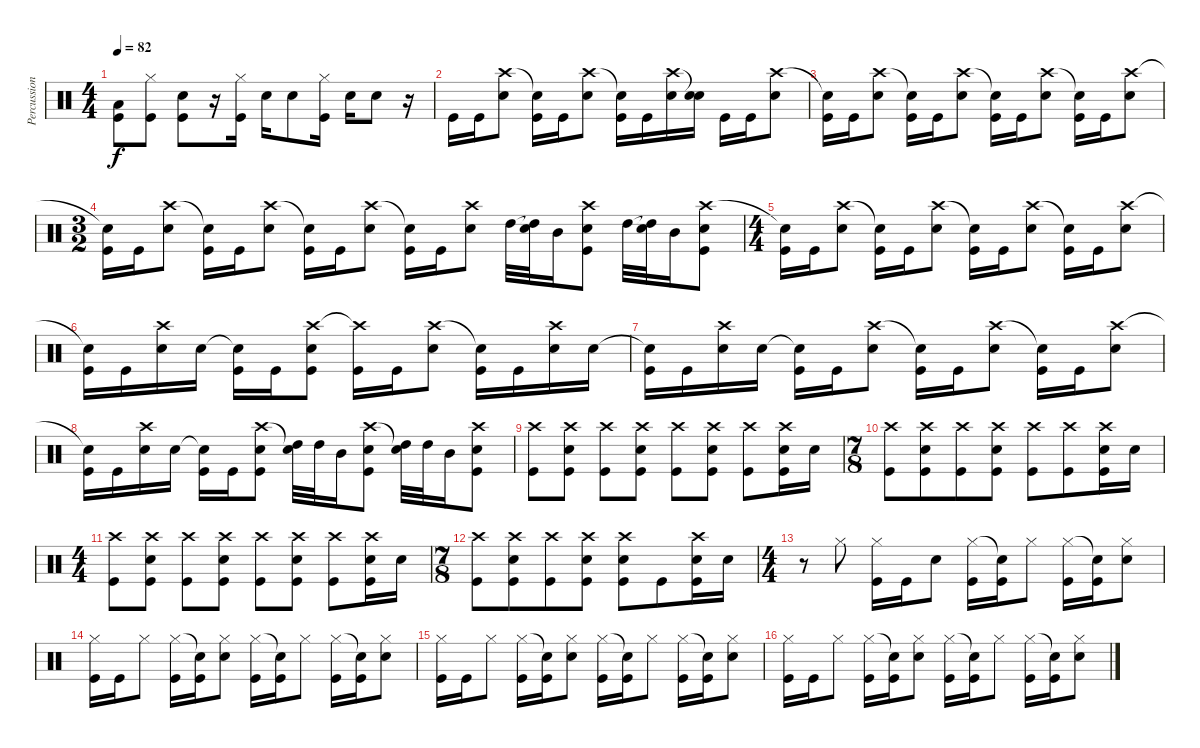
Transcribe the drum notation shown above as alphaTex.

\track ("Percussion" "Percussion") {instrument percussion}
\staff {score}
\articulation defaults
\ts (4 4)
\tempo 82
\clef neutral
\ks c
("Low Tom (hit)" "Kick (hit)").8{dy f} ("Hi-Hat (closed)" "Kick (hit)").8 ("Snare (hit) 2" "Kick (hit)").8 r.16 ("Hi-Hat (closed)" "Kick (hit)").16 "Snare (hit) 2".16 "Snare (hit) 2".8 ("Hi-Hat (closed)" "Kick (hit)").16 "Snare (hit) 2".16 "Snare (hit) 2".8 r.16 |
"Kick (hit)".16 "Kick (hit)".16 ("Crash high (hit)" "Snare (hit) 2").8 ("Snare (hit)"{t} "Kick (hit)").16 "Kick (hit)".16 ("Crash high (hit)" "Snare (hit) 2").8 ("Snare (hit)"{t} "Kick (hit)").16 "Kick (hit)".16 ("Crash high (hit)" "Snare (hit) 2").16 ("Snare (hit)"{t} "Snare (hit) 2").16 "Kick (hit)".16 "Kick (hit)".16 ("Crash high (hit)" "Snare (hit) 2").8 |
("Snare (hit)"{t} "Kick (hit)").16 "Kick (hit)".16 ("Crash high (hit)" "Snare (hit) 2").8 ("Snare (hit)"{t} "Kick (hit)").16 "Kick (hit)".16 ("Crash high (hit)" "Snare (hit) 2").8 ("Snare (hit)"{t} "Kick (hit)").16 "Kick (hit)".16 ("Crash high (hit)" "Snare (hit) 2").8 ("Snare (hit)"{t} "Kick (hit)").16 "Kick (hit)".16 ("Crash high (hit)" "Snare (hit) 2").8 |
\ts (3 2)
("Snare (hit)"{t} "Kick (hit)").16 "Kick (hit)".16 ("Crash high (hit)" "Snare (hit) 2").8 ("Snare (hit)"{t} "Kick (hit)").16 "Kick (hit)".16 ("Crash high (hit)" "Snare (hit) 2").8 ("Snare (hit)"{t} "Kick (hit)").16 "Kick (hit)".16 ("Crash high (hit)" "Snare (hit) 2").8 ("Snare (hit)"{t} "Kick (hit)").16 "Kick (hit)".16 ("Crash high (hit)" "Snare (hit) 2").8 "High Tom (hit)".32 ("Snare (hit)"{t} "High Tom (hit)").32 "Mid Tom (hit)".16 ("Crash high (hit)" "Snare (hit) 2" "Kick (hit)").8 "High Tom (hit)".32 ("Snare (hit)"{t} "High Tom (hit)").32 "Mid Tom (hit)".16 ("Crash high (hit)" "Snare (hit) 2" "Kick (hit)").8 |
\ts (4 4)
("Snare (hit)"{t} "Kick (hit)").16 "Kick (hit)".16 ("Crash high (hit)" "Snare (hit) 2").8 ("Snare (hit)"{t} "Kick (hit)").16 "Kick (hit)".16 ("Crash high (hit)" "Snare (hit) 2").8 ("Snare (hit)"{t} "Kick (hit)").16 "Kick (hit)".16 ("Crash high (hit)" "Snare (hit) 2").8 ("Snare (hit)"{t} "Kick (hit)").16 "Kick (hit)".16 ("Crash high (hit)" "Snare (hit) 2").8 |
("Snare (hit)"{t} "Kick (hit)").16 "Kick (hit)".16 ("Crash high (hit)" "Snare (hit) 2").16 "Snare (hit) 2".16 ("Snare (hit)"{t} "Kick (hit)").16 "Kick (hit)".16 ("Crash high (hit)" "Snare (hit) 2" "Kick (hit)").8 ("Crash high (hit)"{t} "Kick (hit)").16 "Kick (hit)".16 ("Crash high (hit)" "Snare (hit) 2").8 ("Snare (hit)"{t} "Kick (hit)").16 "Kick (hit)".16 ("Crash high (hit)" "Snare (hit) 2").16 "Snare (hit) 2".16 |
("Snare (hit)"{t} "Kick (hit)").16 "Kick (hit)".16 ("Crash high (hit)" "Snare (hit) 2").16 "Snare (hit) 2".16 ("Snare (hit)"{t} "Kick (hit)").16 "Kick (hit)".16 ("Crash high (hit)" "Snare (hit) 2").8 ("Snare (hit)"{t} "Kick (hit)").16 "Kick (hit)".16 ("Crash high (hit)" "Snare (hit) 2").8 ("Snare (hit)"{t} "Kick (hit)").16 "Kick (hit)".16 ("Crash high (hit)" "Snare (hit) 2").8 |
("Snare (hit)"{t} "Kick (hit)").16 "Kick (hit)".16 ("Crash high (hit)" "Snare (hit) 2").16 "Snare (hit) 2".16 ("Snare (hit)"{t} "Kick (hit)").16 "Kick (hit)".16 ("Crash high (hit)" "Snare (hit) 2" "Kick (hit)").8 ("Snare (hit)"{t} "High Tom (hit)").32 "High Tom (hit)".32 "Mid Tom (hit)".16 ("Crash high (hit)" "Snare (hit) 2" "Kick (hit)").8 ("Snare (hit)"{t} "High Tom (hit)").32 "High Tom (hit)".32 "Mid Tom (hit)".16 ("Crash high (hit)" "Snare (hit) 2" "Kick (hit)").8 |
("Crash high (hit)" "Kick (hit)").8 ("Crash high (hit)" "Snare (hit) 2" "Kick (hit)").8 ("Crash high (hit)" "Kick (hit)").8 ("Crash high (hit)" "Snare (hit) 2" "Kick (hit)").8 ("Crash high (hit)" "Kick (hit)").8 ("Crash high (hit)" "Snare (hit) 2" "Kick (hit)").8 ("Crash high (hit)" "Kick (hit)").8 ("Crash high (hit)" "Snare (hit) 2" "Kick (hit)").16 "Snare (hit) 2".16 |
\ts (7 8)
("Crash high (hit)" "Kick (hit)").8 ("Crash high (hit)" "Snare (hit) 2" "Kick (hit)").8 ("Crash high (hit)" "Kick (hit)").8 ("Crash high (hit)" "Snare (hit) 2" "Kick (hit)").8 ("Crash high (hit)" "Kick (hit)").8 ("Crash high (hit)" "Kick (hit)").8 ("Crash high (hit)" "Snare (hit) 2" "Kick (hit)").16 "Snare (hit) 2".16 |
\ts (4 4)
("Crash high (hit)" "Kick (hit)").8 ("Crash high (hit)" "Snare (hit) 2" "Kick (hit)").8 ("Crash high (hit)" "Kick (hit)").8 ("Crash high (hit)" "Snare (hit) 2" "Kick (hit)").8 ("Crash high (hit)" "Kick (hit)").8 ("Crash high (hit)" "Snare (hit) 2" "Kick (hit)").8 ("Crash high (hit)" "Kick (hit)").8 ("Crash high (hit)" "Snare (hit) 2" "Kick (hit)").16 "Snare (hit) 2".16 |
\ts (7 8)
("Crash high (hit)" "Kick (hit)").8 ("Crash high (hit)" "Snare (hit) 2" "Kick (hit)").8 ("Crash high (hit)" "Kick (hit)").8 ("Crash high (hit)" "Snare (hit) 2" "Kick (hit)").8 ("Crash high (hit)" "Snare (hit) 2" "Kick (hit)").8 "Kick (hit)".8 ("Crash high (hit)" "Snare (hit) 2" "Kick (hit)").16 "Snare (hit) 2".16 |
\ts (4 4)
r.8 "Hi-Hat (closed)".8 ("Hi-Hat (closed)" "Kick (hit)").16 "Kick (hit)".16 "Snare (hit) 2".8 ("Hi-Hat (closed)" "Kick (hit)").16 ("Snare (hit)"{t} "Kick (hit)").16 "Hi-Hat (closed)".8 ("Hi-Hat (closed)" "Kick (hit)").16 ("Snare (hit)"{t} "Kick (hit)").16 ("Hi-Hat (closed)" "Snare (hit) 2").8 |
("Hi-Hat (closed)" "Kick (hit)").16 "Kick (hit)".16 "Hi-Hat (closed)".8 ("Hi-Hat (closed)" "Kick (hit)").16 ("Snare (hit)"{t} "Kick (hit)").16 ("Hi-Hat (closed)" "Snare (hit) 2").8 ("Hi-Hat (closed)" "Kick (hit)").16 ("Snare (hit)"{t} "Kick (hit)").16 "Hi-Hat (closed)".8 ("Hi-Hat (closed)" "Kick (hit)").16 ("Snare (hit)"{t} "Kick (hit)").16 ("Hi-Hat (closed)" "Snare (hit) 2").8 |
("Hi-Hat (closed)" "Kick (hit)").16 "Kick (hit)".16 "Hi-Hat (closed)".8 ("Hi-Hat (closed)" "Kick (hit)").16 ("Snare (hit)"{t} "Kick (hit)").16 ("Hi-Hat (closed)" "Snare (hit) 2").8 ("Hi-Hat (closed)" "Kick (hit)").16 ("Snare (hit)"{t} "Kick (hit)").16 "Hi-Hat (closed)".8 ("Hi-Hat (closed)" "Kick (hit)").16 ("Snare (hit)"{t} "Kick (hit)").16 ("Hi-Hat (closed)" "Snare (hit) 2").8 |
("Hi-Hat (closed)" "Kick (hit)").16 "Kick (hit)".16 "Hi-Hat (closed)".8 ("Hi-Hat (closed)" "Kick (hit)").16 ("Snare (hit)"{t} "Kick (hit)").16 ("Hi-Hat (closed)" "Snare (hit) 2").8 ("Hi-Hat (closed)" "Kick (hit)").16 ("Snare (hit)"{t} "Kick (hit)").16 "Hi-Hat (closed)".8 ("Hi-Hat (closed)" "Kick (hit)").16 ("Snare (hit)"{t} "Kick (hit)").16 ("Hi-Hat (closed)" "Snare (hit) 2").8
